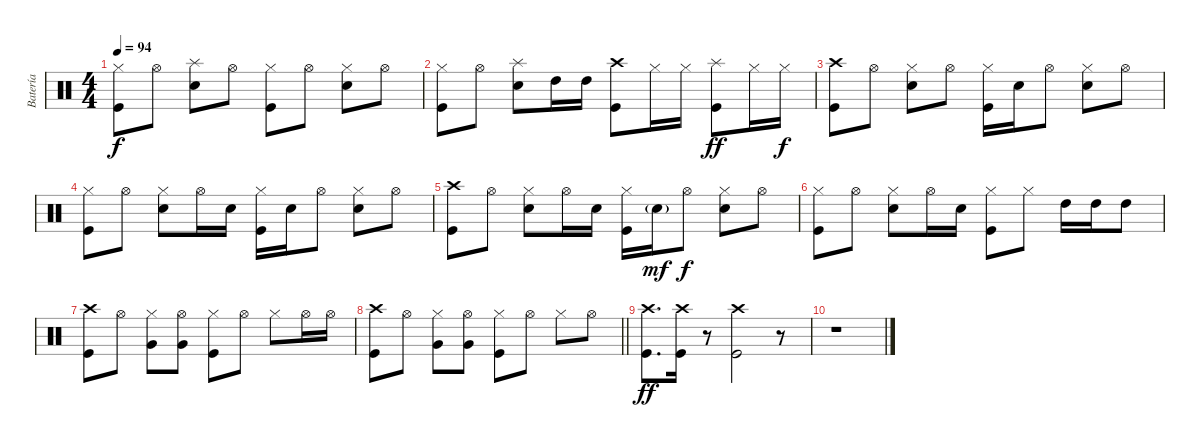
\track ("Batería" "Batería") {instrument percussion}
\staff {score}
\articulation defaults
\ts (4 4)
\tempo 94
\clef neutral
\ks c
("Hi-Hat (closed)" "Kick (hit)").8{dy f} "Hi-Hat (open)".8 ("Splash (hit)" "Snare (hit) 2").8 "Hi-Hat (open)".8 ("Hi-Hat (closed)" "Kick (hit)").8 "Hi-Hat (open)".8 ("Hi-Hat (closed)" "Snare (hit) 2").8 "Hi-Hat (open)".8 |
("Hi-Hat (closed)" "Kick (hit)").8 "Hi-Hat (open)".8 ("Splash (hit)" "Snare (hit) 2").8 "High Tom (hit)".16 "High Tom (hit)".16 ("Crash high (hit)" "Kick (hit)").8 "Hi-Hat (closed)".16 "Hi-Hat (closed)".16 ("Splash (hit)" "Kick (hit)").8{dy ff} "Hi-Hat (closed)".16 "Hi-Hat (closed)".16{dy f} |
("Crash high (hit)" "Kick (hit)").8 "Hi-Hat (open)".8 ("Hi-Hat (closed)" "Snare (hit) 2").8 "Hi-Hat (open)".8 ("Hi-Hat (closed)" "Kick (hit)").16 "Snare (hit) 2".16 "Hi-Hat (open)".8 ("Hi-Hat (closed)" "Snare (hit) 2").8 "Hi-Hat (open)".8 |
("Hi-Hat (closed)" "Kick (hit)").8 "Hi-Hat (open)".8 ("Hi-Hat (closed)" "Snare (hit) 2").8 "Hi-Hat (open)".16 "Snare (hit) 2".16 ("Hi-Hat (closed)" "Kick (hit)").16 "Snare (hit) 2".16 "Hi-Hat (open)".8 ("Hi-Hat (closed)" "Snare (hit) 2").8 "Hi-Hat (open)".8 |
("Crash high (hit)" "Kick (hit)").8 "Hi-Hat (open)".8 ("Hi-Hat (closed)" "Snare (hit) 2").8 "Hi-Hat (open)".16 "Snare (hit) 2".16 ("Hi-Hat (closed)" "Kick (hit)").16 "Snare (hit) 2"{g}.16{dy mf} "Hi-Hat (open)".8{dy f} ("Hi-Hat (closed)" "Snare (hit) 2").8 "Hi-Hat (open)".8 |
("Hi-Hat (closed)" "Kick (hit)").8 "Hi-Hat (open)".8 ("Hi-Hat (closed)" "Snare (hit) 2").8 "Hi-Hat (open)".16 "Snare (hit) 2".16 ("Hi-Hat (closed)" "Kick (hit)").8 "Hi-Hat (closed)".8 "High Tom (hit)".16 "High Tom (hit)".16 "High Tom (hit)".8 |
("Crash high (hit)" "Kick (hit)").8 "Hi-Hat (open)".8 ("Hi-Hat (closed)" "Very Low Tom (hit)").8 ("Hi-Hat (open)" "Very Low Tom (hit)").8 ("Hi-Hat (closed)" "Kick (hit)").8 "Hi-Hat (open)".8 "Hi-Hat (closed)".8 "Hi-Hat (open)".16 "Hi-Hat (open)".16 |
\barLineRight lightlight
("Crash high (hit)" "Kick (hit)").8 "Hi-Hat (open)".8 ("Hi-Hat (closed)" "Very Low Tom (hit)").8 ("Hi-Hat (open)" "Very Low Tom (hit)").8 ("Hi-Hat (closed)" "Kick (hit)").8 "Hi-Hat (open)".8 "Hi-Hat (closed)".8 "Hi-Hat (open)".8 |
("Crash high (hit)" "Kick (hit)").8{d dy ff} ("Crash high (hit)" "Kick (hit)").16 r.8 ("Crash high (hit)" "Kick (hit)").2 r.8 |
r.1
